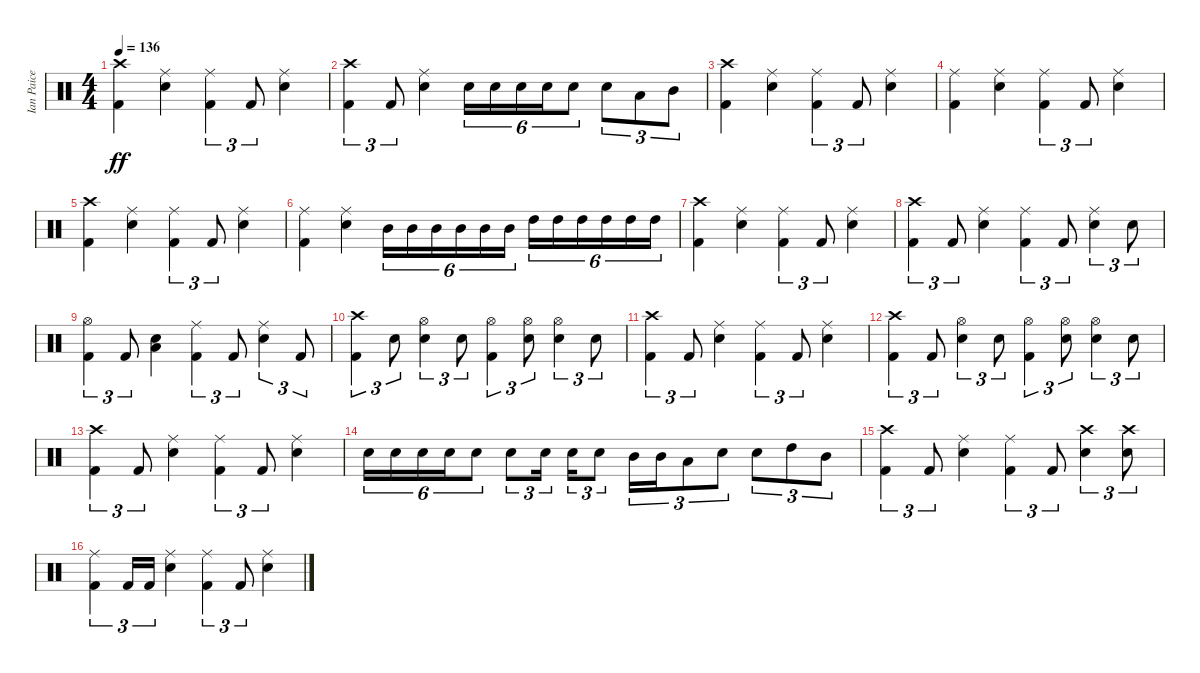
\track ("Ian Paice" "Ian Paice") {instrument percussion}
\staff {score}
\articulation defaults
\ts (4 4)
\tempo 136
\clef neutral
\ks c
("Crash high (hit)" "Kick (hit) 2").4{dy ff} ("Ride (middle)" "Electric Snare (hit)").4 ("Ride (middle)" "Kick (hit) 2").4{tu (3 2)} "Kick (hit) 2".8{tu (3 2)} ("Ride (middle)" "Electric Snare (hit)").4 |
("Crash high (hit)" "Kick (hit) 2").4{tu (3 2)} "Kick (hit) 2".8{tu (3 2)} ("Ride (middle)" "Electric Snare (hit)").4 "Electric Snare (hit)".16{tu (6 4)} "Electric Snare (hit)".16{tu (6 4)} "Electric Snare (hit)".16{tu (6 4)} "Electric Snare (hit)".16{tu (6 4)} "Electric Snare (hit)".8{tu (6 4)} "Electric Snare (hit)".8{tu (3 2)} "Low Tom (hit)".8{tu (3 2)} "Mid Tom (hit)".8{tu (3 2)} |
("Crash high (hit)" "Kick (hit) 2").4 ("Ride (middle)" "Electric Snare (hit)").4 ("Ride (middle)" "Kick (hit) 2").4{tu (3 2)} "Kick (hit) 2".8{tu (3 2)} ("Ride (middle)" "Electric Snare (hit)").4 |
("Ride (middle)" "Kick (hit) 2").4 ("Ride (middle)" "Electric Snare (hit)").4 ("Ride (middle)" "Kick (hit) 2").4{tu (3 2)} "Kick (hit) 2".8{tu (3 2)} ("Ride (middle)" "Electric Snare (hit)").4 |
("Crash high (hit)" "Kick (hit) 2").4 ("Ride (middle)" "Electric Snare (hit)").4 ("Ride (middle)" "Kick (hit) 2").4{tu (3 2)} "Kick (hit) 2".8{tu (3 2)} ("Ride (middle)" "Electric Snare (hit)").4 |
("Ride (middle)" "Kick (hit) 2").4 ("Ride (middle)" "Electric Snare (hit)").4 "Mid Tom (hit)".16{tu (6 4)} "Mid Tom (hit)".16{tu (6 4)} "Mid Tom (hit)".16{tu (6 4)} "Mid Tom (hit)".16{tu (6 4)} "Mid Tom (hit)".16{tu (6 4)} "Mid Tom (hit)".16{tu (6 4)} "High Tom (hit)".16{tu (6 4)} "High Tom (hit)".16{tu (6 4)} "High Tom (hit)".16{tu (6 4)} "High Tom (hit)".16{tu (6 4)} "High Tom (hit)".16{tu (6 4)} "High Tom (hit)".16{tu (6 4)} |
("Crash high (hit)" "Kick (hit) 2").4 ("Ride (middle)" "Electric Snare (hit)").4 ("Ride (middle)" "Kick (hit) 2").4{tu (3 2)} "Kick (hit) 2".8{tu (3 2)} ("Ride (middle)" "Electric Snare (hit)").4 |
("Crash high (hit)" "Kick (hit) 2").4{tu (3 2)} "Kick (hit) 2".8{tu (3 2)} ("Ride (middle)" "Electric Snare (hit)").4 ("Ride (middle)" "Kick (hit) 2").4{tu (3 2)} "Kick (hit) 2".8{tu (3 2)} ("Ride (middle)" "Electric Snare (hit)").4{tu (3 2)} "Electric Snare (hit)".8{tu (3 2)} |
("Hi-Hat (open)" "Kick (hit) 2").4{tu (3 2)} "Kick (hit) 2".8{tu (3 2)} ("Low Floor Tom (hit)" "Electric Snare (hit)").4 ("Ride (middle)" "Kick (hit) 2").4{tu (3 2)} "Kick (hit) 2".8{tu (3 2)} ("Ride (middle)" "Electric Snare (hit)").4{tu (3 2)} "Kick (hit) 2".8{tu (3 2)} |
("Crash high (hit)" "Kick (hit) 2").4{tu (3 2)} "Electric Snare (hit)".8{tu (3 2)} ("Hi-Hat (open)" "Electric Snare (hit)").4{tu (3 2)} "Electric Snare (hit)".8{tu (3 2)} ("Hi-Hat (open)" "Kick (hit) 2").4{tu (3 2)} ("Hi-Hat (open)" "Electric Snare (hit)").8{tu (3 2)} ("Hi-Hat (open)" "Electric Snare (hit)").4{tu (3 2)} "Electric Snare (hit)".8{tu (3 2)} |
("Crash high (hit)" "Kick (hit) 2").4{tu (3 2)} "Kick (hit) 2".8{tu (3 2)} ("Ride (middle)" "Electric Snare (hit)").4 ("Ride (middle)" "Kick (hit) 2").4{tu (3 2)} "Kick (hit) 2".8{tu (3 2)} ("Ride (middle)" "Electric Snare (hit)").4 |
("Crash high (hit)" "Kick (hit) 2").4{tu (3 2)} "Kick (hit) 2".8{tu (3 2)} ("Hi-Hat (open)" "Electric Snare (hit)").4{tu (3 2)} "Electric Snare (hit)".8{tu (3 2)} ("Hi-Hat (open)" "Kick (hit) 2").4{tu (3 2)} ("Hi-Hat (open)" "Electric Snare (hit)").8{tu (3 2)} ("Hi-Hat (open)" "Electric Snare (hit)").4{tu (3 2)} "Electric Snare (hit)".8{tu (3 2)} |
("Crash high (hit)" "Kick (hit) 2").4{tu (3 2)} "Kick (hit) 2".8{tu (3 2)} ("Ride (middle)" "Electric Snare (hit)").4 ("Ride (middle)" "Kick (hit) 2").4{tu (3 2)} "Kick (hit) 2".8{tu (3 2)} ("Ride (middle)" "Electric Snare (hit)").4 |
"Electric Snare (hit)".16{tu (6 4)} "Electric Snare (hit)".16{tu (6 4)} "Electric Snare (hit)".16{tu (6 4)} "Electric Snare (hit)".16{tu (6 4)} "Electric Snare (hit)".8{tu (6 4)} "Electric Snare (hit)".8{tu (3 2)} "Electric Snare (hit)".16{tu (3 2)} "Electric Snare (hit)".16{tu (3 2)} "Electric Snare (hit)".8{tu (3 2)} "Mid Tom (hit)".16{tu (3 2)} "Mid Tom (hit)".16{tu (3 2)} "Low Tom (hit)".8{tu (3 2)} "Electric Snare (hit)".8{tu (3 2)} "Electric Snare (hit)".8{tu (3 2)} "High Tom (hit)".8{tu (3 2)} "Mid Tom (hit)".8{tu (3 2)} |
("Crash high (hit)" "Kick (hit) 2").4{tu (3 2)} "Kick (hit) 2".8{tu (3 2)} ("Ride (middle)" "Electric Snare (hit)").4 ("Ride (middle)" "Kick (hit) 2").4{tu (3 2)} "Kick (hit) 2".8{tu (3 2)} ("Crash high (hit)" "Electric Snare (hit)").4{tu (3 2)} ("Crash high (hit)" "Electric Snare (hit)").8{tu (3 2)} |
("Ride (middle)" "Kick (hit) 2").4{tu (3 2)} "Kick (hit) 2".16{tu (3 2)} "Kick (hit) 2".16{tu (3 2)} ("Ride (middle)" "Electric Snare (hit)").4 ("Ride (middle)" "Kick (hit) 2").4{tu (3 2)} "Kick (hit) 2".8{tu (3 2)} ("Ride (middle)" "Electric Snare (hit)").4
